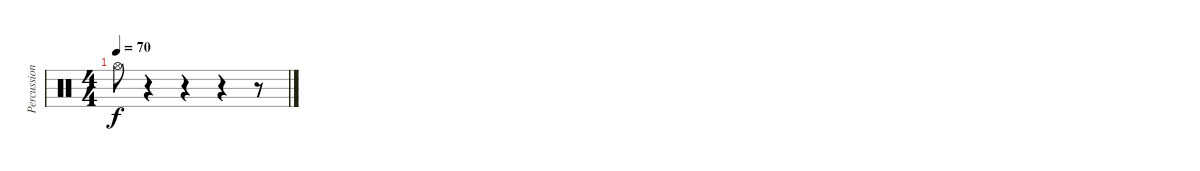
\track ("Percussions" "Percussion") {instrument percussion}
\staff {score}
\articulation defaults
\ts (4 4)
\tempo 70
\clef neutral
\ks c "Hi-Hat (open)".8{dy f}
r.4 r.4 r.4 r.8
